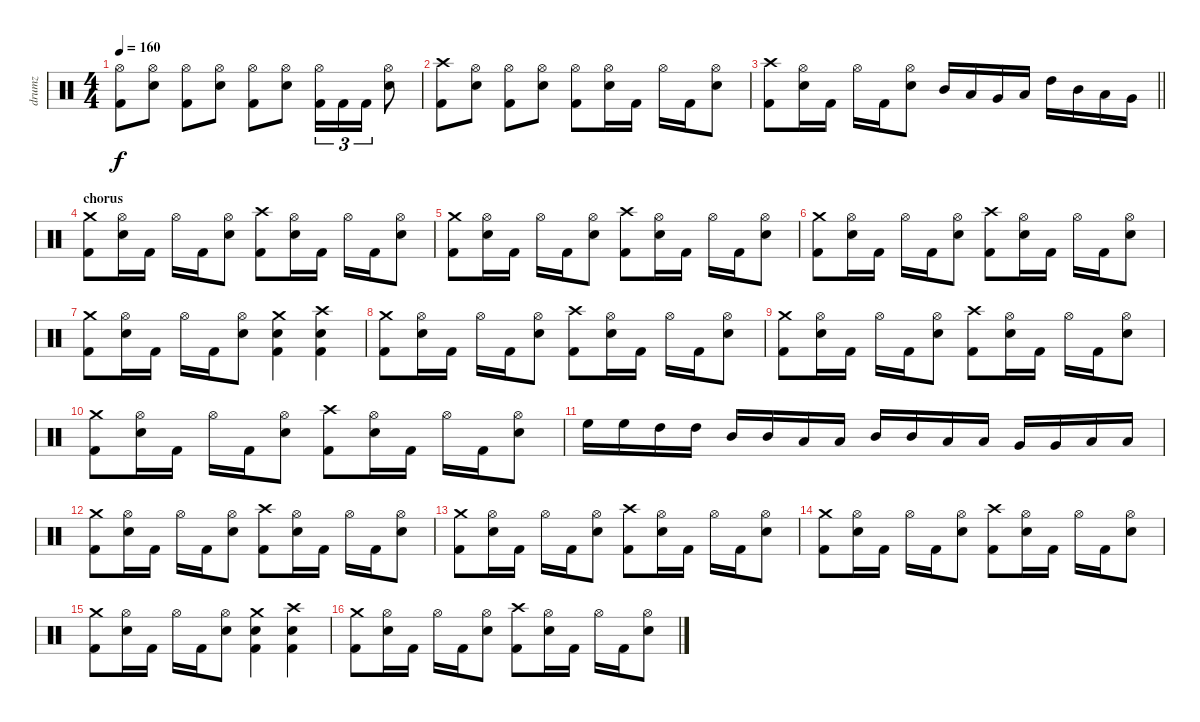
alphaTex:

\track ("drumz" "drumz") {instrument percussion}
\staff {score}
\articulation defaults
\ts (4 4)
\tempo 160
\clef neutral
\ks c
("Hi-Hat (open)" "Kick (hit) 2").8{dy f} ("Hi-Hat (open)" "Electric Snare (hit)").8 ("Hi-Hat (open)" "Kick (hit) 2").8 ("Hi-Hat (open)" "Electric Snare (hit)").8 ("Hi-Hat (open)" "Kick (hit) 2").8 ("Hi-Hat (open)" "Electric Snare (hit)").8 ("Hi-Hat (open)" "Kick (hit) 2").16{tu (3 2)} "Kick (hit) 2".16{tu (3 2)} "Kick (hit) 2".16{tu (3 2)} ("Hi-Hat (open)" "Electric Snare (hit)").8 |
("Crash high (hit)" "Kick (hit) 2").8 ("Hi-Hat (open)" "Electric Snare (hit)").8 ("Hi-Hat (open)" "Kick (hit) 2").8 ("Hi-Hat (open)" "Electric Snare (hit)").8 ("Hi-Hat (open)" "Kick (hit) 2").8 ("Hi-Hat (open)" "Electric Snare (hit)").16 "Kick (hit) 2".16 "Hi-Hat (open)".16 "Kick (hit) 2".16 ("Hi-Hat (open)" "Electric Snare (hit)").8 |
\barLineRight lightlight
("Crash high (hit)" "Kick (hit) 2").8 ("Hi-Hat (open)" "Electric Snare (hit)").16 "Kick (hit) 2".16 "Hi-Hat (open)".16 "Kick (hit) 2".16 ("Hi-Hat (open)" "Electric Snare (hit)").8 "Mid Tom (hit)".16 "Low Tom (hit)".16 "Very Low Tom (hit)".16 "Low Floor Tom (hit)".16 "High Tom (hit)".16 "Mid Tom (hit)".16 "Low Tom (hit)".16 "Very Low Tom (hit)".16 |
\section ("" "chorus")
("Crash medium (hit)" "Kick (hit) 2").8 ("Hi-Hat (open)" "Electric Snare (hit)").16 "Kick (hit) 2".16 "Hi-Hat (open)".16 "Kick (hit) 2".16 ("Hi-Hat (open)" "Electric Snare (hit)").8 ("Crash high (hit)" "Kick (hit) 2").8 ("Hi-Hat (open)" "Electric Snare (hit)").16 "Kick (hit) 2".16 "Hi-Hat (open)".16 "Kick (hit) 2".16 ("Hi-Hat (open)" "Electric Snare (hit)").8 |
("Crash medium (hit)" "Kick (hit) 2").8 ("Hi-Hat (open)" "Electric Snare (hit)").16 "Kick (hit) 2".16 "Hi-Hat (open)".16 "Kick (hit) 2".16 ("Hi-Hat (open)" "Electric Snare (hit)").8 ("Crash high (hit)" "Kick (hit) 2").8 ("Hi-Hat (open)" "Electric Snare (hit)").16 "Kick (hit) 2".16 "Hi-Hat (open)".16 "Kick (hit) 2".16 ("Hi-Hat (open)" "Electric Snare (hit)").8 |
("Crash medium (hit)" "Kick (hit) 2").8 ("Hi-Hat (open)" "Electric Snare (hit)").16 "Kick (hit) 2".16 "Hi-Hat (open)".16 "Kick (hit) 2".16 ("Hi-Hat (open)" "Electric Snare (hit)").8 ("Crash high (hit)" "Kick (hit) 2").8 ("Hi-Hat (open)" "Electric Snare (hit)").16 "Kick (hit) 2".16 "Hi-Hat (open)".16 "Kick (hit) 2".16 ("Hi-Hat (open)" "Electric Snare (hit)").8 |
("Crash medium (hit)" "Kick (hit) 2").8 ("Hi-Hat (open)" "Electric Snare (hit)").16 "Kick (hit) 2".16 "Hi-Hat (open)".16 "Kick (hit) 2".16 ("Hi-Hat (open)" "Electric Snare (hit)").8 ("Crash medium (hit)" "Electric Snare (hit)" "Kick (hit) 2").4 ("Crash high (hit)" "Electric Snare (hit)" "Kick (hit) 2").4 |
("Crash medium (hit)" "Kick (hit) 2").8 ("Hi-Hat (open)" "Electric Snare (hit)").16 "Kick (hit) 2".16 "Hi-Hat (open)".16 "Kick (hit) 2".16 ("Hi-Hat (open)" "Electric Snare (hit)").8 ("Crash high (hit)" "Kick (hit) 2").8 ("Hi-Hat (open)" "Electric Snare (hit)").16 "Kick (hit) 2".16 "Hi-Hat (open)".16 "Kick (hit) 2".16 ("Hi-Hat (open)" "Electric Snare (hit)").8 |
("Crash medium (hit)" "Kick (hit) 2").8 ("Hi-Hat (open)" "Electric Snare (hit)").16 "Kick (hit) 2".16 "Hi-Hat (open)".16 "Kick (hit) 2".16 ("Hi-Hat (open)" "Electric Snare (hit)").8 ("Crash high (hit)" "Kick (hit) 2").8 ("Hi-Hat (open)" "Electric Snare (hit)").16 "Kick (hit) 2".16 "Hi-Hat (open)".16 "Kick (hit) 2".16 ("Hi-Hat (open)" "Electric Snare (hit)").8 |
("Crash medium (hit)" "Kick (hit) 2").8 ("Hi-Hat (open)" "Electric Snare (hit)").16 "Kick (hit) 2".16 "Hi-Hat (open)".16 "Kick (hit) 2".16 ("Hi-Hat (open)" "Electric Snare (hit)").8 ("Crash high (hit)" "Kick (hit) 2").8 ("Hi-Hat (open)" "Electric Snare (hit)").16 "Kick (hit) 2".16 "Hi-Hat (open)".16 "Kick (hit) 2".16 ("Hi-Hat (open)" "Electric Snare (hit)").8 |
"High Floor Tom (hit)".16 "High Floor Tom (hit)".16 "High Tom (hit)".16 "High Tom (hit)".16 "Mid Tom (hit)".16 "Mid Tom (hit)".16 "Low Tom (hit)".16 "Low Tom (hit)".16 "Mid Tom (hit)".16 "Mid Tom (hit)".16 "Low Tom (hit)".16 "Low Tom (hit)".16 "Very Low Tom (hit)".16 "Very Low Tom (hit)".16 "Low Floor Tom (hit)".16 "Low Floor Tom (hit)".16 |
("Crash medium (hit)" "Kick (hit) 2").8 ("Hi-Hat (open)" "Electric Snare (hit)").16 "Kick (hit) 2".16 "Hi-Hat (open)".16 "Kick (hit) 2".16 ("Hi-Hat (open)" "Electric Snare (hit)").8 ("Crash high (hit)" "Kick (hit) 2").8 ("Hi-Hat (open)" "Electric Snare (hit)").16 "Kick (hit) 2".16 "Hi-Hat (open)".16 "Kick (hit) 2".16 ("Hi-Hat (open)" "Electric Snare (hit)").8 |
("Crash medium (hit)" "Kick (hit) 2").8 ("Hi-Hat (open)" "Electric Snare (hit)").16 "Kick (hit) 2".16 "Hi-Hat (open)".16 "Kick (hit) 2".16 ("Hi-Hat (open)" "Electric Snare (hit)").8 ("Crash high (hit)" "Kick (hit) 2").8 ("Hi-Hat (open)" "Electric Snare (hit)").16 "Kick (hit) 2".16 "Hi-Hat (open)".16 "Kick (hit) 2".16 ("Hi-Hat (open)" "Electric Snare (hit)").8 |
("Crash medium (hit)" "Kick (hit) 2").8 ("Hi-Hat (open)" "Electric Snare (hit)").16 "Kick (hit) 2".16 "Hi-Hat (open)".16 "Kick (hit) 2".16 ("Hi-Hat (open)" "Electric Snare (hit)").8 ("Crash high (hit)" "Kick (hit) 2").8 ("Hi-Hat (open)" "Electric Snare (hit)").16 "Kick (hit) 2".16 "Hi-Hat (open)".16 "Kick (hit) 2".16 ("Hi-Hat (open)" "Electric Snare (hit)").8 |
("Crash medium (hit)" "Kick (hit) 2").8 ("Hi-Hat (open)" "Electric Snare (hit)").16 "Kick (hit) 2".16 "Hi-Hat (open)".16 "Kick (hit) 2".16 ("Hi-Hat (open)" "Electric Snare (hit)").8 ("Crash medium (hit)" "Electric Snare (hit)" "Kick (hit) 2").4 ("Crash high (hit)" "Electric Snare (hit)" "Kick (hit) 2").4 |
("Crash medium (hit)" "Kick (hit) 2").8 ("Hi-Hat (open)" "Electric Snare (hit)").16 "Kick (hit) 2".16 "Hi-Hat (open)".16 "Kick (hit) 2".16 ("Hi-Hat (open)" "Electric Snare (hit)").8 ("Crash high (hit)" "Kick (hit) 2").8 ("Hi-Hat (open)" "Electric Snare (hit)").16 "Kick (hit) 2".16 "Hi-Hat (open)".16 "Kick (hit) 2".16 ("Hi-Hat (open)" "Electric Snare (hit)").8
